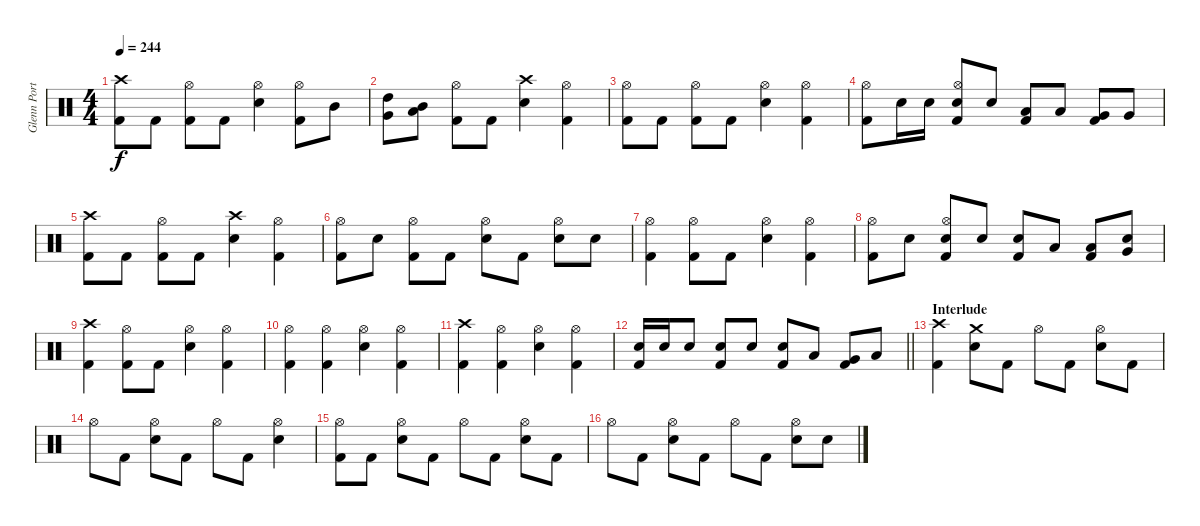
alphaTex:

\track ("Glenn Porter - Drums" "Glenn Port") {instrument percussion}
\staff {score}
\articulation defaults
\ts (4 4)
\tempo 244
\clef neutral
\ks c
("Kick (hit) 2" "Crash high (hit)").8{dy f} "Kick (hit) 2".8 ("Kick (hit) 2" "Hi-Hat (open)").8 "Kick (hit) 2".8 ("Snare (hit) 2" "Hi-Hat (open)").4 ("Kick (hit) 2" "Hi-Hat (open)").8 "Mid Tom (hit)".8 |
("High Tom (hit)" "Very Low Tom (hit)").8 ("Mid Tom (hit)" "Low Floor Tom (hit)").8 ("Kick (hit) 2" "Hi-Hat (open)").8 "Kick (hit) 2".8 ("Crash high (hit)" "Snare (hit) 2").4 ("Kick (hit) 2" "Hi-Hat (open)").4 |
("Kick (hit) 2" "Hi-Hat (open)").8 "Kick (hit) 2".8 ("Kick (hit) 2" "Hi-Hat (open)").8 "Kick (hit) 2".8 ("Snare (hit) 2" "Hi-Hat (open)").4 ("Kick (hit) 2" "Hi-Hat (open)").4 |
("Kick (hit) 2" "Hi-Hat (open)").8 "Snare (hit) 2".16 "Snare (hit) 2".16 ("Snare (hit) 2" "Hi-Hat (open)" "Kick (hit) 2").8 "Snare (hit) 2".8 ("Low Tom (hit)" "Kick (hit) 2").8 "Low Tom (hit)".8 ("Very Low Tom (hit)" "Kick (hit) 2").8 "Very Low Tom (hit)".8 |
("Crash high (hit)" "Kick (hit) 2").8 "Kick (hit) 2".8 ("Kick (hit) 2" "Hi-Hat (open)").8 "Kick (hit) 2".8 ("Crash high (hit)" "Snare (hit) 2").4 ("Kick (hit) 2" "Hi-Hat (open)").4 |
("Kick (hit) 2" "Hi-Hat (open)").8 "Snare (hit) 2".8 ("Kick (hit) 2" "Hi-Hat (open)").8 "Kick (hit) 2".8 ("Snare (hit) 2" "Hi-Hat (open)").8 "Kick (hit) 2".8 ("Snare (hit) 2" "Hi-Hat (open)").8 "Snare (hit) 2".8 |
("Kick (hit) 2" "Hi-Hat (open)").4 ("Kick (hit) 2" "Hi-Hat (open)").8 "Kick (hit) 2".8 ("Snare (hit) 2" "Hi-Hat (open)").4 ("Kick (hit) 2" "Hi-Hat (open)").4 |
("Kick (hit) 2" "Hi-Hat (open)").8 "Snare (hit) 2".8 ("Snare (hit) 2" "Kick (hit) 2" "Hi-Hat (open)").8 "Snare (hit) 2".8 ("Snare (hit) 2" "Kick (hit) 2").8 "Low Tom (hit)".8 ("Low Tom (hit)" "Kick (hit) 2").8 ("Very Low Tom (hit)" "Snare (hit) 2").8 |
("Crash high (hit)" "Kick (hit) 2").4 ("Kick (hit) 2" "Hi-Hat (open)").8 "Kick (hit) 2".8 ("Snare (hit) 2" "Hi-Hat (open)").4 ("Kick (hit) 2" "Hi-Hat (open)").4 |
("Kick (hit) 2" "Hi-Hat (open)").4 ("Kick (hit) 2" "Hi-Hat (open)").4 ("Snare (hit) 2" "Hi-Hat (open)").4 ("Kick (hit) 2" "Hi-Hat (open)").4 |
("Crash high (hit)" "Kick (hit) 2").4 ("Kick (hit) 2" "Hi-Hat (open)").4 ("Snare (hit) 2" "Hi-Hat (open)").4 ("Kick (hit) 2" "Hi-Hat (open)").4 |
\barLineRight lightlight
("Snare (hit) 2" "Kick (hit) 2").16 "Snare (hit) 2".16 "Snare (hit) 2".8 ("Snare (hit) 2" "Kick (hit) 2").8 "Snare (hit) 2".8 ("Snare (hit) 2" "Kick (hit) 2").8 "Low Tom (hit)".8 ("Very Low Tom (hit)" "Kick (hit) 2").8 "Low Floor Tom (hit)".8 |
\section ("" "Interlude")
("Kick (hit) 2" "Crash high (hit)").4 ("Snare (hit) 2" "Crash medium (hit)").8 "Kick (hit) 2".8 "Hi-Hat (open)".8 "Kick (hit) 2".8 ("Snare (hit) 2" "Hi-Hat (open)").8 "Kick (hit) 2".8 |
"Hi-Hat (open)".8 "Kick (hit) 2".8 ("Snare (hit) 2" "Hi-Hat (open)").8 "Kick (hit) 2".8 "Hi-Hat (open)".8 "Kick (hit) 2".8 ("Snare (hit) 2" "Hi-Hat (open)").4 |
("Kick (hit) 2" "Hi-Hat (open)").8 "Kick (hit) 2".8 ("Snare (hit) 2" "Hi-Hat (open)").8 "Kick (hit) 2".8 "Hi-Hat (open)".8 "Kick (hit) 2".8 ("Snare (hit) 2" "Hi-Hat (open)").8 "Kick (hit) 2".8 |
"Hi-Hat (open)".8 "Kick (hit) 2".8 ("Snare (hit) 2" "Hi-Hat (open)").8 "Kick (hit) 2".8 "Hi-Hat (open)".8 "Kick (hit) 2".8 ("Snare (hit) 2" "Hi-Hat (open)").8 "Snare (hit) 2".8
